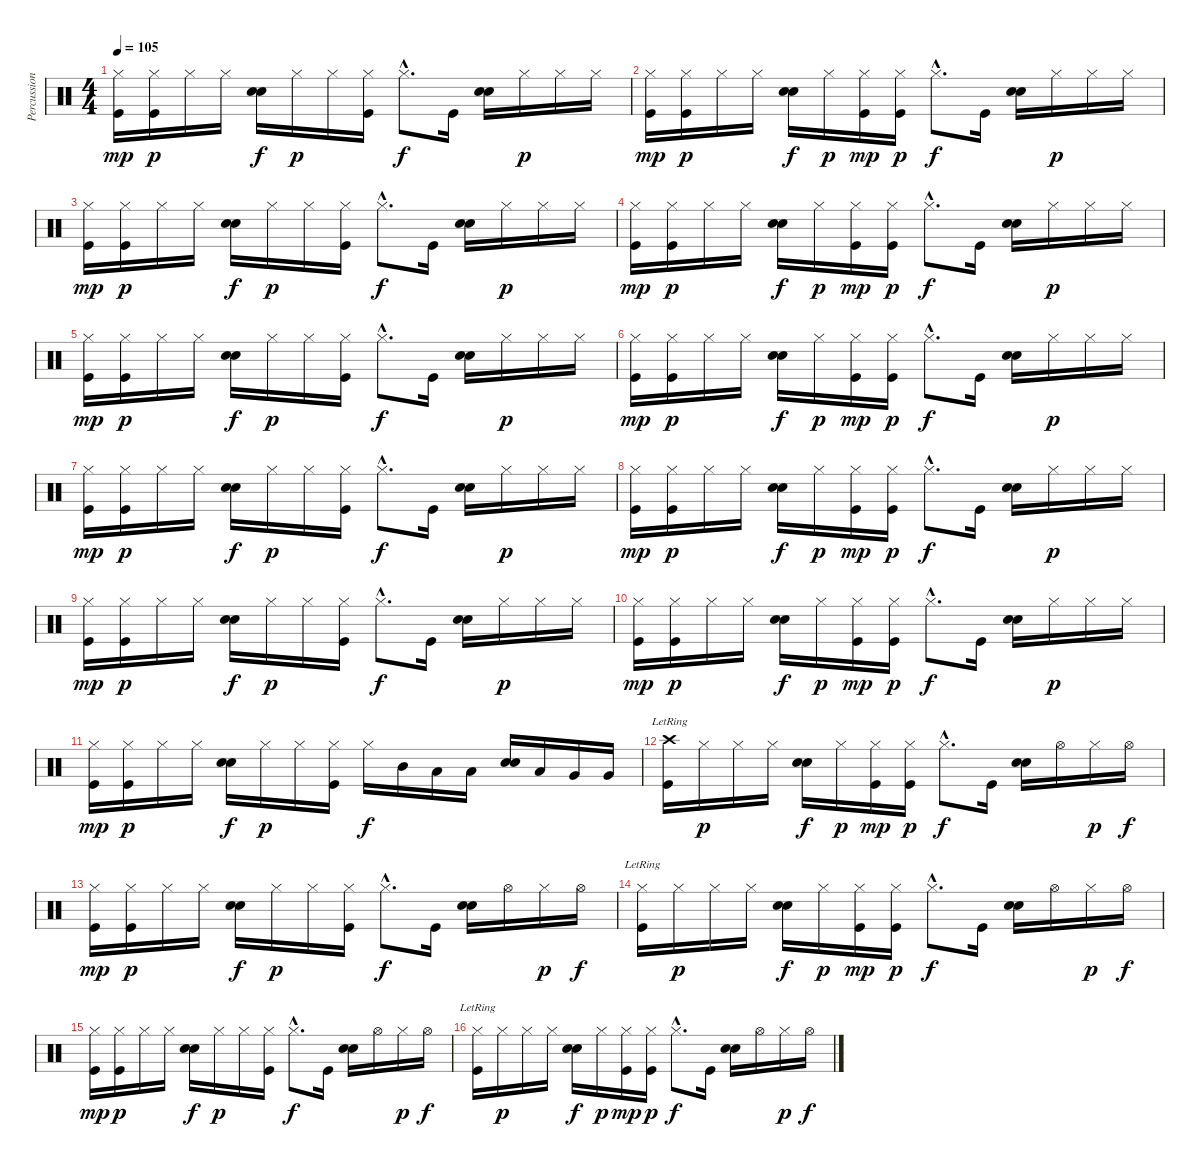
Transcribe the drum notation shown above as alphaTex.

\track ("Percussions" "Percussion") {instrument percussion}
\staff {score}
\articulation defaults
\ts (4 4)
\tempo 105
\clef neutral
\ks c
("Hi-Hat (closed)" "Kick (hit)").16{dy mp} ("Hi-Hat (closed)" "Kick (hit)").16{dy p} "Hi-Hat (closed)".16 "Hi-Hat (closed)".16 ("Hand Clap (hit)" "Snare (hit) 2").16{dy f} "Hi-Hat (closed)".16{dy p} "Hi-Hat (closed)".16 ("Hi-Hat (closed)" "Kick (hit)").16 "Hi-Hat (closed)"{hac}.8{d dy f} "Kick (hit)".16 ("Hand Clap (hit)" "Snare (hit) 2").16 "Hi-Hat (closed)".16{dy p} "Hi-Hat (closed)".16 "Hi-Hat (closed)".16 |
("Hi-Hat (closed)" "Kick (hit)").16{dy mp} ("Hi-Hat (closed)" "Kick (hit)").16{dy p} "Hi-Hat (closed)".16 "Hi-Hat (closed)".16 ("Hand Clap (hit)" "Snare (hit) 2").16{dy f} "Hi-Hat (closed)".16{dy p} ("Hi-Hat (closed)" "Kick (hit)").16{dy mp} ("Hi-Hat (closed)" "Kick (hit)").16{dy p} "Hi-Hat (closed)"{hac}.8{d dy f} "Kick (hit)".16 ("Hand Clap (hit)" "Snare (hit) 2").16 "Hi-Hat (closed)".16{dy p} "Hi-Hat (closed)".16 "Hi-Hat (closed)".16 |
("Hi-Hat (closed)" "Kick (hit)").16{dy mp} ("Hi-Hat (closed)" "Kick (hit)").16{dy p} "Hi-Hat (closed)".16 "Hi-Hat (closed)".16 ("Hand Clap (hit)" "Snare (hit) 2").16{dy f} "Hi-Hat (closed)".16{dy p} "Hi-Hat (closed)".16 ("Hi-Hat (closed)" "Kick (hit)").16 "Hi-Hat (closed)"{hac}.8{d dy f} "Kick (hit)".16 ("Hand Clap (hit)" "Snare (hit) 2").16 "Hi-Hat (closed)".16{dy p} "Hi-Hat (closed)".16 "Hi-Hat (closed)".16 |
("Hi-Hat (closed)" "Kick (hit)").16{dy mp} ("Hi-Hat (closed)" "Kick (hit)").16{dy p} "Hi-Hat (closed)".16 "Hi-Hat (closed)".16 ("Hand Clap (hit)" "Snare (hit) 2").16{dy f} "Hi-Hat (closed)".16{dy p} ("Hi-Hat (closed)" "Kick (hit)").16{dy mp} ("Hi-Hat (closed)" "Kick (hit)").16{dy p} "Hi-Hat (closed)"{hac}.8{d dy f} "Kick (hit)".16 ("Hand Clap (hit)" "Snare (hit) 2").16 "Hi-Hat (closed)".16{dy p} "Hi-Hat (closed)".16 "Hi-Hat (closed)".16 |
("Hi-Hat (closed)" "Kick (hit)").16{dy mp} ("Hi-Hat (closed)" "Kick (hit)").16{dy p} "Hi-Hat (closed)".16 "Hi-Hat (closed)".16 ("Hand Clap (hit)" "Snare (hit) 2").16{dy f} "Hi-Hat (closed)".16{dy p} "Hi-Hat (closed)".16 ("Hi-Hat (closed)" "Kick (hit)").16 "Hi-Hat (closed)"{hac}.8{d dy f} "Kick (hit)".16 ("Hand Clap (hit)" "Snare (hit) 2").16 "Hi-Hat (closed)".16{dy p} "Hi-Hat (closed)".16 "Hi-Hat (closed)".16 |
("Hi-Hat (closed)" "Kick (hit)").16{dy mp} ("Hi-Hat (closed)" "Kick (hit)").16{dy p} "Hi-Hat (closed)".16 "Hi-Hat (closed)".16 ("Hand Clap (hit)" "Snare (hit) 2").16{dy f} "Hi-Hat (closed)".16{dy p} ("Hi-Hat (closed)" "Kick (hit)").16{dy mp} ("Hi-Hat (closed)" "Kick (hit)").16{dy p} "Hi-Hat (closed)"{hac}.8{d dy f} "Kick (hit)".16 ("Hand Clap (hit)" "Snare (hit) 2").16 "Hi-Hat (closed)".16{dy p} "Hi-Hat (closed)".16 "Hi-Hat (closed)".16 |
("Hi-Hat (closed)" "Kick (hit)").16{dy mp} ("Hi-Hat (closed)" "Kick (hit)").16{dy p} "Hi-Hat (closed)".16 "Hi-Hat (closed)".16 ("Hand Clap (hit)" "Snare (hit) 2").16{dy f} "Hi-Hat (closed)".16{dy p} "Hi-Hat (closed)".16 ("Hi-Hat (closed)" "Kick (hit)").16 "Hi-Hat (closed)"{hac}.8{d dy f} "Kick (hit)".16 ("Hand Clap (hit)" "Snare (hit) 2").16 "Hi-Hat (closed)".16{dy p} "Hi-Hat (closed)".16 "Hi-Hat (closed)".16 |
("Hi-Hat (closed)" "Kick (hit)").16{dy mp} ("Hi-Hat (closed)" "Kick (hit)").16{dy p} "Hi-Hat (closed)".16 "Hi-Hat (closed)".16 ("Hand Clap (hit)" "Snare (hit) 2").16{dy f} "Hi-Hat (closed)".16{dy p} ("Hi-Hat (closed)" "Kick (hit)").16{dy mp} ("Hi-Hat (closed)" "Kick (hit)").16{dy p} "Hi-Hat (closed)"{hac}.8{d dy f} "Kick (hit)".16 ("Hand Clap (hit)" "Snare (hit) 2").16 "Hi-Hat (closed)".16{dy p} "Hi-Hat (closed)".16 "Hi-Hat (closed)".16 |
("Hi-Hat (closed)" "Kick (hit)").16{dy mp} ("Hi-Hat (closed)" "Kick (hit)").16{dy p} "Hi-Hat (closed)".16 "Hi-Hat (closed)".16 ("Hand Clap (hit)" "Snare (hit) 2").16{dy f} "Hi-Hat (closed)".16{dy p} "Hi-Hat (closed)".16 ("Hi-Hat (closed)" "Kick (hit)").16 "Hi-Hat (closed)"{hac}.8{d dy f} "Kick (hit)".16 ("Hand Clap (hit)" "Snare (hit) 2").16 "Hi-Hat (closed)".16{dy p} "Hi-Hat (closed)".16 "Hi-Hat (closed)".16 |
("Hi-Hat (closed)" "Kick (hit)").16{dy mp} ("Hi-Hat (closed)" "Kick (hit)").16{dy p} "Hi-Hat (closed)".16 "Hi-Hat (closed)".16 ("Hand Clap (hit)" "Snare (hit) 2").16{dy f} "Hi-Hat (closed)".16{dy p} ("Hi-Hat (closed)" "Kick (hit)").16{dy mp} ("Hi-Hat (closed)" "Kick (hit)").16{dy p} "Hi-Hat (closed)"{hac}.8{d dy f} "Kick (hit)".16 ("Hand Clap (hit)" "Snare (hit) 2").16 "Hi-Hat (closed)".16{dy p} "Hi-Hat (closed)".16 "Hi-Hat (closed)".16 |
("Hi-Hat (closed)" "Kick (hit)").16{dy mp} ("Hi-Hat (closed)" "Kick (hit)").16{dy p} "Hi-Hat (closed)".16 "Hi-Hat (closed)".16 ("Hand Clap (hit)" "Snare (hit) 2").16{dy f} "Hi-Hat (closed)".16{dy p} "Hi-Hat (closed)".16 ("Hi-Hat (closed)" "Kick (hit)").16 "Hi-Hat (closed)".16{dy f} "Mid Tom (hit)".16 "Low Tom (hit)".16 "Low Tom (hit)".16 ("Hand Clap (hit)" "Snare (hit) 2").16 "Low Tom (hit)".16 "Very Low Tom (hit)".16 "Very Low Tom (hit)".16 |
("Crash high (hit)"{lr} "Kick (hit)").16 "Hi-Hat (closed)".16{dy p} "Hi-Hat (closed)".16 "Hi-Hat (closed)".16 ("Hand Clap (hit)" "Snare (hit) 2").16{dy f} "Hi-Hat (closed)".16{dy p} ("Hi-Hat (closed)" "Kick (hit)").16{dy mp} ("Hi-Hat (closed)" "Kick (hit)").16{dy p} "Hi-Hat (closed)"{hac}.8{d dy f} "Kick (hit)".16 ("Hand Clap (hit)" "Snare (hit) 2").16 "Hi-Hat (open)".16 "Hi-Hat (closed)".16{dy p} "Hi-Hat (open)".16{dy f} |
("Hi-Hat (closed)" "Kick (hit)").16{dy mp} ("Hi-Hat (closed)" "Kick (hit)").16{dy p} "Hi-Hat (closed)".16 "Hi-Hat (closed)".16 ("Hand Clap (hit)" "Snare (hit) 2").16{dy f} "Hi-Hat (closed)".16{dy p} "Hi-Hat (closed)".16 ("Hi-Hat (closed)" "Kick (hit)").16 "Hi-Hat (closed)"{hac}.8{d dy f} "Kick (hit)".16 ("Hand Clap (hit)" "Snare (hit) 2").16 "Hi-Hat (open)".16 "Hi-Hat (closed)".16{dy p} "Hi-Hat (open)".16{dy f} |
("Hi-Hat (closed)"{lr} "Kick (hit)").16 "Hi-Hat (closed)".16{dy p} "Hi-Hat (closed)".16 "Hi-Hat (closed)".16 ("Hand Clap (hit)" "Snare (hit) 2").16{dy f} "Hi-Hat (closed)".16{dy p} ("Hi-Hat (closed)" "Kick (hit)").16{dy mp} ("Hi-Hat (closed)" "Kick (hit)").16{dy p} "Hi-Hat (closed)"{hac}.8{d dy f} "Kick (hit)".16 ("Hand Clap (hit)" "Snare (hit) 2").16 "Hi-Hat (open)".16 "Hi-Hat (closed)".16{dy p} "Hi-Hat (open)".16{dy f} |
("Hi-Hat (closed)" "Kick (hit)").16{dy mp} ("Hi-Hat (closed)" "Kick (hit)").16{dy p} "Hi-Hat (closed)".16 "Hi-Hat (closed)".16 ("Hand Clap (hit)" "Snare (hit) 2").16{dy f} "Hi-Hat (closed)".16{dy p} "Hi-Hat (closed)".16 ("Hi-Hat (closed)" "Kick (hit)").16 "Hi-Hat (closed)"{hac}.8{d dy f} "Kick (hit)".16 ("Hand Clap (hit)" "Snare (hit) 2").16 "Hi-Hat (open)".16 "Hi-Hat (closed)".16{dy p} "Hi-Hat (open)".16{dy f} |
("Hi-Hat (closed)"{lr} "Kick (hit)").16 "Hi-Hat (closed)".16{dy p} "Hi-Hat (closed)".16 "Hi-Hat (closed)".16 ("Hand Clap (hit)" "Snare (hit) 2").16{dy f} "Hi-Hat (closed)".16{dy p} ("Hi-Hat (closed)" "Kick (hit)").16{dy mp} ("Hi-Hat (closed)" "Kick (hit)").16{dy p} "Hi-Hat (closed)"{hac}.8{d dy f} "Kick (hit)".16 ("Hand Clap (hit)" "Snare (hit) 2").16 "Hi-Hat (open)".16 "Hi-Hat (closed)".16{dy p} "Hi-Hat (open)".16{dy f}
